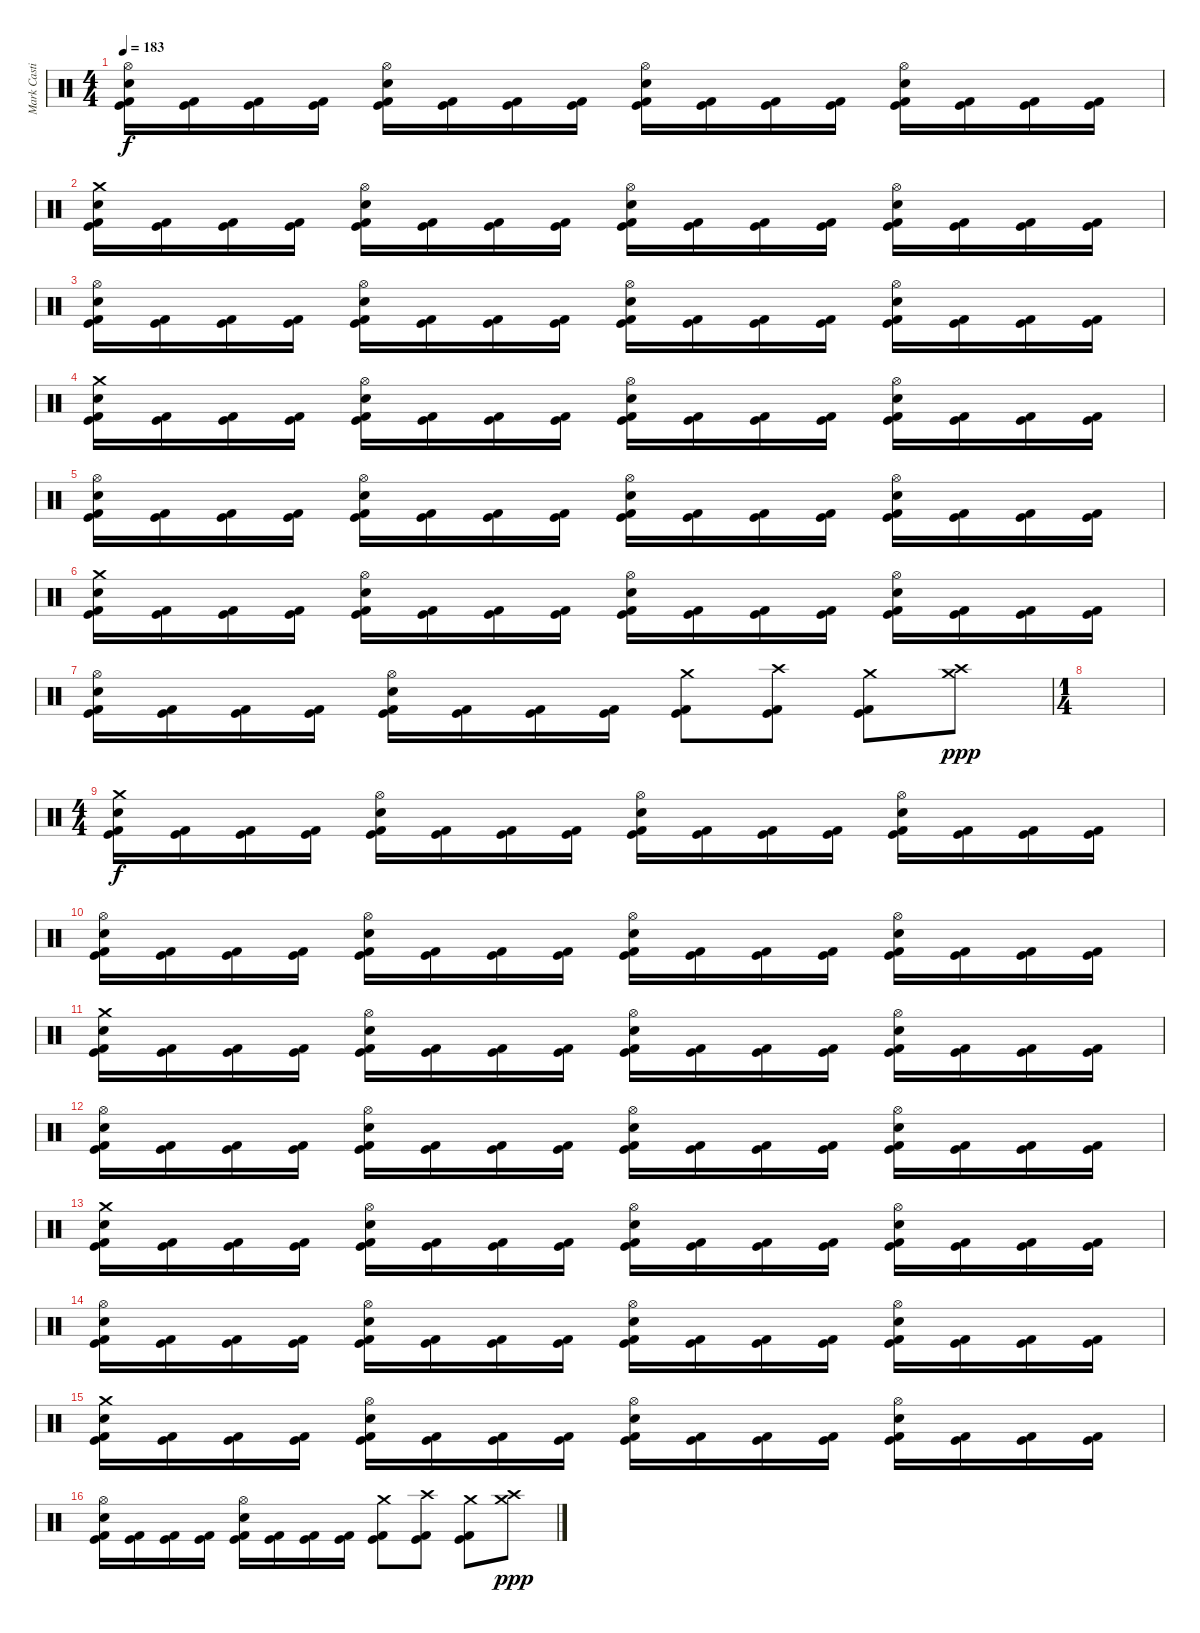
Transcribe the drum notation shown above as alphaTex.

\track ("Mark Castillo" "Mark Casti") {instrument percussion}
\staff {score}
\articulation defaults
\ts (4 4)
\tempo 183
\clef neutral
\ks c
("Hi-Hat (open)" "Electric Snare (hit)" "Kick (hit)" "Kick (hit) 2").16{dy f} ("Kick (hit)" "Kick (hit) 2").16 ("Kick (hit)" "Kick (hit) 2").16 ("Kick (hit)" "Kick (hit) 2").16 ("Hi-Hat (open)" "Electric Snare (hit)" "Kick (hit)" "Kick (hit) 2").16 ("Kick (hit)" "Kick (hit) 2").16 ("Kick (hit)" "Kick (hit) 2").16 ("Kick (hit)" "Kick (hit) 2").16 ("Hi-Hat (open)" "Electric Snare (hit)" "Kick (hit)" "Kick (hit) 2").16 ("Kick (hit)" "Kick (hit) 2").16 ("Kick (hit)" "Kick (hit) 2").16 ("Kick (hit)" "Kick (hit) 2").16 ("Hi-Hat (open)" "Electric Snare (hit)" "Kick (hit)" "Kick (hit) 2").16 ("Kick (hit)" "Kick (hit) 2").16 ("Kick (hit)" "Kick (hit) 2").16 ("Kick (hit)" "Kick (hit) 2").16 |
("Crash medium (hit)" "Electric Snare (hit)" "Kick (hit)" "Kick (hit) 2").16 ("Kick (hit)" "Kick (hit) 2").16 ("Kick (hit)" "Kick (hit) 2").16 ("Kick (hit)" "Kick (hit) 2").16 ("Hi-Hat (open)" "Electric Snare (hit)" "Kick (hit)" "Kick (hit) 2").16 ("Kick (hit)" "Kick (hit) 2").16 ("Kick (hit)" "Kick (hit) 2").16 ("Kick (hit)" "Kick (hit) 2").16 ("Hi-Hat (open)" "Electric Snare (hit)" "Kick (hit)" "Kick (hit) 2").16 ("Kick (hit)" "Kick (hit) 2").16 ("Kick (hit)" "Kick (hit) 2").16 ("Kick (hit)" "Kick (hit) 2").16 ("Hi-Hat (open)" "Electric Snare (hit)" "Kick (hit)" "Kick (hit) 2").16 ("Kick (hit)" "Kick (hit) 2").16 ("Kick (hit)" "Kick (hit) 2").16 ("Kick (hit)" "Kick (hit) 2").16 |
("Hi-Hat (open)" "Electric Snare (hit)" "Kick (hit)" "Kick (hit) 2").16 ("Kick (hit)" "Kick (hit) 2").16 ("Kick (hit)" "Kick (hit) 2").16 ("Kick (hit)" "Kick (hit) 2").16 ("Hi-Hat (open)" "Electric Snare (hit)" "Kick (hit)" "Kick (hit) 2").16 ("Kick (hit)" "Kick (hit) 2").16 ("Kick (hit)" "Kick (hit) 2").16 ("Kick (hit)" "Kick (hit) 2").16 ("Hi-Hat (open)" "Electric Snare (hit)" "Kick (hit)" "Kick (hit) 2").16 ("Kick (hit)" "Kick (hit) 2").16 ("Kick (hit)" "Kick (hit) 2").16 ("Kick (hit)" "Kick (hit) 2").16 ("Hi-Hat (open)" "Electric Snare (hit)" "Kick (hit)" "Kick (hit) 2").16 ("Kick (hit)" "Kick (hit) 2").16 ("Kick (hit)" "Kick (hit) 2").16 ("Kick (hit)" "Kick (hit) 2").16 |
("Crash medium (hit)" "Electric Snare (hit)" "Kick (hit)" "Kick (hit) 2").16 ("Kick (hit)" "Kick (hit) 2").16 ("Kick (hit)" "Kick (hit) 2").16 ("Kick (hit)" "Kick (hit) 2").16 ("Hi-Hat (open)" "Electric Snare (hit)" "Kick (hit)" "Kick (hit) 2").16 ("Kick (hit)" "Kick (hit) 2").16 ("Kick (hit)" "Kick (hit) 2").16 ("Kick (hit)" "Kick (hit) 2").16 ("Hi-Hat (open)" "Electric Snare (hit)" "Kick (hit)" "Kick (hit) 2").16 ("Kick (hit)" "Kick (hit) 2").16 ("Kick (hit)" "Kick (hit) 2").16 ("Kick (hit)" "Kick (hit) 2").16 ("Hi-Hat (open)" "Electric Snare (hit)" "Kick (hit)" "Kick (hit) 2").16 ("Kick (hit)" "Kick (hit) 2").16 ("Kick (hit)" "Kick (hit) 2").16 ("Kick (hit)" "Kick (hit) 2").16 |
("Hi-Hat (open)" "Electric Snare (hit)" "Kick (hit)" "Kick (hit) 2").16 ("Kick (hit)" "Kick (hit) 2").16 ("Kick (hit)" "Kick (hit) 2").16 ("Kick (hit)" "Kick (hit) 2").16 ("Hi-Hat (open)" "Electric Snare (hit)" "Kick (hit)" "Kick (hit) 2").16 ("Kick (hit)" "Kick (hit) 2").16 ("Kick (hit)" "Kick (hit) 2").16 ("Kick (hit)" "Kick (hit) 2").16 ("Hi-Hat (open)" "Electric Snare (hit)" "Kick (hit)" "Kick (hit) 2").16 ("Kick (hit)" "Kick (hit) 2").16 ("Kick (hit)" "Kick (hit) 2").16 ("Kick (hit)" "Kick (hit) 2").16 ("Hi-Hat (open)" "Electric Snare (hit)" "Kick (hit)" "Kick (hit) 2").16 ("Kick (hit)" "Kick (hit) 2").16 ("Kick (hit)" "Kick (hit) 2").16 ("Kick (hit)" "Kick (hit) 2").16 |
("Crash medium (hit)" "Electric Snare (hit)" "Kick (hit)" "Kick (hit) 2").16 ("Kick (hit)" "Kick (hit) 2").16 ("Kick (hit)" "Kick (hit) 2").16 ("Kick (hit)" "Kick (hit) 2").16 ("Hi-Hat (open)" "Electric Snare (hit)" "Kick (hit)" "Kick (hit) 2").16 ("Kick (hit)" "Kick (hit) 2").16 ("Kick (hit)" "Kick (hit) 2").16 ("Kick (hit)" "Kick (hit) 2").16 ("Hi-Hat (open)" "Electric Snare (hit)" "Kick (hit)" "Kick (hit) 2").16 ("Kick (hit)" "Kick (hit) 2").16 ("Kick (hit)" "Kick (hit) 2").16 ("Kick (hit)" "Kick (hit) 2").16 ("Hi-Hat (open)" "Electric Snare (hit)" "Kick (hit)" "Kick (hit) 2").16 ("Kick (hit)" "Kick (hit) 2").16 ("Kick (hit)" "Kick (hit) 2").16 ("Kick (hit)" "Kick (hit) 2").16 |
("Hi-Hat (open)" "Electric Snare (hit)" "Kick (hit)" "Kick (hit) 2").16 ("Kick (hit)" "Kick (hit) 2").16 ("Kick (hit)" "Kick (hit) 2").16 ("Kick (hit)" "Kick (hit) 2").16 ("Hi-Hat (open)" "Electric Snare (hit)" "Kick (hit)" "Kick (hit) 2").16 ("Kick (hit)" "Kick (hit) 2").16 ("Kick (hit)" "Kick (hit) 2").16 ("Kick (hit)" "Kick (hit) 2").16 ("Crash medium (hit)" "Kick (hit)" "Kick (hit) 2").8 ("Crash high (hit)" "Kick (hit)" "Kick (hit) 2").8 ("Crash medium (hit)" "Kick (hit)" "Kick (hit) 2").8 ("Crash medium (hit)" "Crash high (hit)").8{dy ppp} |
\ts (1 4)
|
\ts (4 4)
("Crash medium (hit)" "Electric Snare (hit)" "Kick (hit)" "Kick (hit) 2").16{dy f} ("Kick (hit)" "Kick (hit) 2").16 ("Kick (hit)" "Kick (hit) 2").16 ("Kick (hit)" "Kick (hit) 2").16 ("Hi-Hat (open)" "Electric Snare (hit)" "Kick (hit)" "Kick (hit) 2").16 ("Kick (hit)" "Kick (hit) 2").16 ("Kick (hit)" "Kick (hit) 2").16 ("Kick (hit)" "Kick (hit) 2").16 ("Hi-Hat (open)" "Electric Snare (hit)" "Kick (hit)" "Kick (hit) 2").16 ("Kick (hit)" "Kick (hit) 2").16 ("Kick (hit)" "Kick (hit) 2").16 ("Kick (hit)" "Kick (hit) 2").16 ("Hi-Hat (open)" "Electric Snare (hit)" "Kick (hit)" "Kick (hit) 2").16 ("Kick (hit)" "Kick (hit) 2").16 ("Kick (hit)" "Kick (hit) 2").16 ("Kick (hit)" "Kick (hit) 2").16 |
("Hi-Hat (open)" "Electric Snare (hit)" "Kick (hit)" "Kick (hit) 2").16 ("Kick (hit)" "Kick (hit) 2").16 ("Kick (hit)" "Kick (hit) 2").16 ("Kick (hit)" "Kick (hit) 2").16 ("Hi-Hat (open)" "Electric Snare (hit)" "Kick (hit)" "Kick (hit) 2").16 ("Kick (hit)" "Kick (hit) 2").16 ("Kick (hit)" "Kick (hit) 2").16 ("Kick (hit)" "Kick (hit) 2").16 ("Hi-Hat (open)" "Electric Snare (hit)" "Kick (hit)" "Kick (hit) 2").16 ("Kick (hit)" "Kick (hit) 2").16 ("Kick (hit)" "Kick (hit) 2").16 ("Kick (hit)" "Kick (hit) 2").16 ("Hi-Hat (open)" "Electric Snare (hit)" "Kick (hit)" "Kick (hit) 2").16 ("Kick (hit)" "Kick (hit) 2").16 ("Kick (hit)" "Kick (hit) 2").16 ("Kick (hit)" "Kick (hit) 2").16 |
("Crash medium (hit)" "Electric Snare (hit)" "Kick (hit)" "Kick (hit) 2").16 ("Kick (hit)" "Kick (hit) 2").16 ("Kick (hit)" "Kick (hit) 2").16 ("Kick (hit)" "Kick (hit) 2").16 ("Hi-Hat (open)" "Electric Snare (hit)" "Kick (hit)" "Kick (hit) 2").16 ("Kick (hit)" "Kick (hit) 2").16 ("Kick (hit)" "Kick (hit) 2").16 ("Kick (hit)" "Kick (hit) 2").16 ("Hi-Hat (open)" "Electric Snare (hit)" "Kick (hit)" "Kick (hit) 2").16 ("Kick (hit)" "Kick (hit) 2").16 ("Kick (hit)" "Kick (hit) 2").16 ("Kick (hit)" "Kick (hit) 2").16 ("Hi-Hat (open)" "Electric Snare (hit)" "Kick (hit)" "Kick (hit) 2").16 ("Kick (hit)" "Kick (hit) 2").16 ("Kick (hit)" "Kick (hit) 2").16 ("Kick (hit)" "Kick (hit) 2").16 |
("Hi-Hat (open)" "Electric Snare (hit)" "Kick (hit)" "Kick (hit) 2").16 ("Kick (hit)" "Kick (hit) 2").16 ("Kick (hit)" "Kick (hit) 2").16 ("Kick (hit)" "Kick (hit) 2").16 ("Hi-Hat (open)" "Electric Snare (hit)" "Kick (hit)" "Kick (hit) 2").16 ("Kick (hit)" "Kick (hit) 2").16 ("Kick (hit)" "Kick (hit) 2").16 ("Kick (hit)" "Kick (hit) 2").16 ("Hi-Hat (open)" "Electric Snare (hit)" "Kick (hit)" "Kick (hit) 2").16 ("Kick (hit)" "Kick (hit) 2").16 ("Kick (hit)" "Kick (hit) 2").16 ("Kick (hit)" "Kick (hit) 2").16 ("Hi-Hat (open)" "Electric Snare (hit)" "Kick (hit)" "Kick (hit) 2").16 ("Kick (hit)" "Kick (hit) 2").16 ("Kick (hit)" "Kick (hit) 2").16 ("Kick (hit)" "Kick (hit) 2").16 |
("Crash medium (hit)" "Electric Snare (hit)" "Kick (hit)" "Kick (hit) 2").16 ("Kick (hit)" "Kick (hit) 2").16 ("Kick (hit)" "Kick (hit) 2").16 ("Kick (hit)" "Kick (hit) 2").16 ("Hi-Hat (open)" "Electric Snare (hit)" "Kick (hit)" "Kick (hit) 2").16 ("Kick (hit)" "Kick (hit) 2").16 ("Kick (hit)" "Kick (hit) 2").16 ("Kick (hit)" "Kick (hit) 2").16 ("Hi-Hat (open)" "Electric Snare (hit)" "Kick (hit)" "Kick (hit) 2").16 ("Kick (hit)" "Kick (hit) 2").16 ("Kick (hit)" "Kick (hit) 2").16 ("Kick (hit)" "Kick (hit) 2").16 ("Hi-Hat (open)" "Electric Snare (hit)" "Kick (hit)" "Kick (hit) 2").16 ("Kick (hit)" "Kick (hit) 2").16 ("Kick (hit)" "Kick (hit) 2").16 ("Kick (hit)" "Kick (hit) 2").16 |
("Hi-Hat (open)" "Electric Snare (hit)" "Kick (hit)" "Kick (hit) 2").16 ("Kick (hit)" "Kick (hit) 2").16 ("Kick (hit)" "Kick (hit) 2").16 ("Kick (hit)" "Kick (hit) 2").16 ("Hi-Hat (open)" "Electric Snare (hit)" "Kick (hit)" "Kick (hit) 2").16 ("Kick (hit)" "Kick (hit) 2").16 ("Kick (hit)" "Kick (hit) 2").16 ("Kick (hit)" "Kick (hit) 2").16 ("Hi-Hat (open)" "Electric Snare (hit)" "Kick (hit)" "Kick (hit) 2").16 ("Kick (hit)" "Kick (hit) 2").16 ("Kick (hit)" "Kick (hit) 2").16 ("Kick (hit)" "Kick (hit) 2").16 ("Hi-Hat (open)" "Electric Snare (hit)" "Kick (hit)" "Kick (hit) 2").16 ("Kick (hit)" "Kick (hit) 2").16 ("Kick (hit)" "Kick (hit) 2").16 ("Kick (hit)" "Kick (hit) 2").16 |
("Crash medium (hit)" "Electric Snare (hit)" "Kick (hit)" "Kick (hit) 2").16 ("Kick (hit)" "Kick (hit) 2").16 ("Kick (hit)" "Kick (hit) 2").16 ("Kick (hit)" "Kick (hit) 2").16 ("Hi-Hat (open)" "Electric Snare (hit)" "Kick (hit)" "Kick (hit) 2").16 ("Kick (hit)" "Kick (hit) 2").16 ("Kick (hit)" "Kick (hit) 2").16 ("Kick (hit)" "Kick (hit) 2").16 ("Hi-Hat (open)" "Electric Snare (hit)" "Kick (hit)" "Kick (hit) 2").16 ("Kick (hit)" "Kick (hit) 2").16 ("Kick (hit)" "Kick (hit) 2").16 ("Kick (hit)" "Kick (hit) 2").16 ("Hi-Hat (open)" "Electric Snare (hit)" "Kick (hit)" "Kick (hit) 2").16 ("Kick (hit)" "Kick (hit) 2").16 ("Kick (hit)" "Kick (hit) 2").16 ("Kick (hit)" "Kick (hit) 2").16 |
("Hi-Hat (open)" "Electric Snare (hit)" "Kick (hit)" "Kick (hit) 2").16 ("Kick (hit)" "Kick (hit) 2").16 ("Kick (hit)" "Kick (hit) 2").16 ("Kick (hit)" "Kick (hit) 2").16 ("Hi-Hat (open)" "Electric Snare (hit)" "Kick (hit)" "Kick (hit) 2").16 ("Kick (hit)" "Kick (hit) 2").16 ("Kick (hit)" "Kick (hit) 2").16 ("Kick (hit)" "Kick (hit) 2").16 ("Crash medium (hit)" "Kick (hit)" "Kick (hit) 2").8 ("Crash high (hit)" "Kick (hit)" "Kick (hit) 2").8 ("Crash medium (hit)" "Kick (hit)" "Kick (hit) 2").8 ("Crash medium (hit)" "Crash high (hit)").8{dy ppp}
